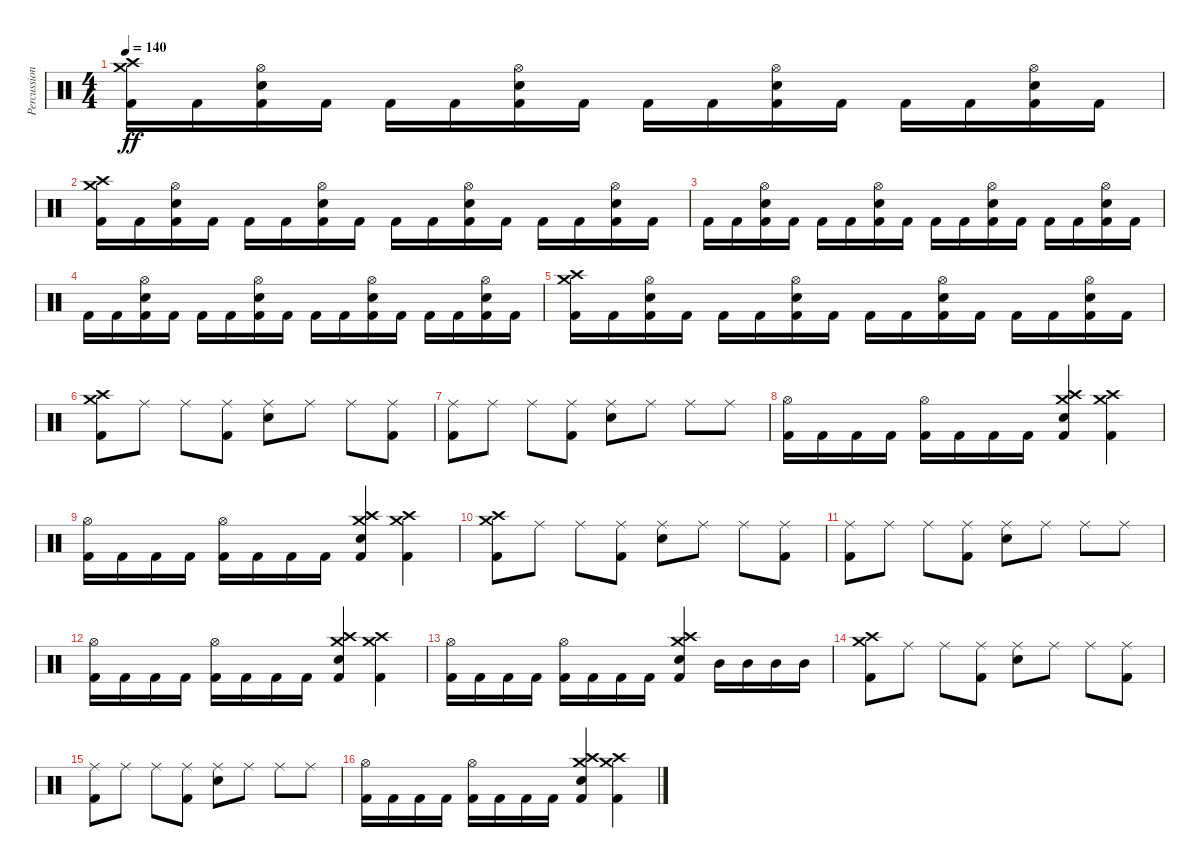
\track ("Percussion" "Percussion") {instrument percussion}
\staff {score}
\articulation defaults
\ts (4 4)
\tempo 140
\clef neutral
\ks c
("Kick (hit) 2" "Crash medium (hit)" "Crash high (hit)").16{dy ff} "Kick (hit) 2".16 ("Kick (hit) 2" "Electric Snare (hit)" "Hi-Hat (open)").16 "Kick (hit) 2".16 "Kick (hit) 2".16 "Kick (hit) 2".16 ("Kick (hit) 2" "Electric Snare (hit)" "Hi-Hat (open)").16 "Kick (hit) 2".16 "Kick (hit) 2".16 "Kick (hit) 2".16 ("Kick (hit) 2" "Electric Snare (hit)" "Hi-Hat (open)").16 "Kick (hit) 2".16 "Kick (hit) 2".16 "Kick (hit) 2".16 ("Kick (hit) 2" "Electric Snare (hit)" "Hi-Hat (open)").16 "Kick (hit) 2".16 |
("Kick (hit) 2" "Crash medium (hit)" "Crash high (hit)").16 "Kick (hit) 2".16 ("Kick (hit) 2" "Electric Snare (hit)" "Hi-Hat (open)").16 "Kick (hit) 2".16 "Kick (hit) 2".16 "Kick (hit) 2".16 ("Kick (hit) 2" "Electric Snare (hit)" "Hi-Hat (open)").16 "Kick (hit) 2".16 "Kick (hit) 2".16 "Kick (hit) 2".16 ("Kick (hit) 2" "Electric Snare (hit)" "Hi-Hat (open)").16 "Kick (hit) 2".16 "Kick (hit) 2".16 "Kick (hit) 2".16 ("Kick (hit) 2" "Electric Snare (hit)" "Hi-Hat (open)").16 "Kick (hit) 2".16 |
"Kick (hit) 2".16 "Kick (hit) 2".16 ("Kick (hit) 2" "Electric Snare (hit)" "Hi-Hat (open)").16 "Kick (hit) 2".16 "Kick (hit) 2".16 "Kick (hit) 2".16 ("Kick (hit) 2" "Electric Snare (hit)" "Hi-Hat (open)").16 "Kick (hit) 2".16 "Kick (hit) 2".16 "Kick (hit) 2".16 ("Kick (hit) 2" "Electric Snare (hit)" "Hi-Hat (open)").16 "Kick (hit) 2".16 "Kick (hit) 2".16 "Kick (hit) 2".16 ("Kick (hit) 2" "Electric Snare (hit)" "Hi-Hat (open)").16 "Kick (hit) 2".16 |
"Kick (hit) 2".16 "Kick (hit) 2".16 ("Kick (hit) 2" "Electric Snare (hit)" "Hi-Hat (open)").16 "Kick (hit) 2".16 "Kick (hit) 2".16 "Kick (hit) 2".16 ("Kick (hit) 2" "Electric Snare (hit)" "Hi-Hat (open)").16 "Kick (hit) 2".16 "Kick (hit) 2".16 "Kick (hit) 2".16 ("Kick (hit) 2" "Electric Snare (hit)" "Hi-Hat (open)").16 "Kick (hit) 2".16 "Kick (hit) 2".16 "Kick (hit) 2".16 ("Kick (hit) 2" "Electric Snare (hit)" "Hi-Hat (open)").16 "Kick (hit) 2".16 |
("Kick (hit) 2" "Crash medium (hit)" "Crash high (hit)").16 "Kick (hit) 2".16 ("Kick (hit) 2" "Electric Snare (hit)" "Hi-Hat (open)").16 "Kick (hit) 2".16 "Kick (hit) 2".16 "Kick (hit) 2".16 ("Kick (hit) 2" "Electric Snare (hit)" "Hi-Hat (open)").16 "Kick (hit) 2".16 "Kick (hit) 2".16 "Kick (hit) 2".16 ("Kick (hit) 2" "Electric Snare (hit)" "Hi-Hat (open)").16 "Kick (hit) 2".16 "Kick (hit) 2".16 "Kick (hit) 2".16 ("Kick (hit) 2" "Electric Snare (hit)" "Hi-Hat (open)").16 "Kick (hit) 2".16 |
("Kick (hit) 2" "Crash medium (hit)" "Crash high (hit)").8 "Ride (middle)".8 "Ride (middle)".8 ("Kick (hit) 2" "Ride (middle)").8 ("Electric Snare (hit)" "Ride (middle)").8 "Ride (middle)".8 "Ride (middle)".8 ("Kick (hit) 2" "Ride (middle)").8 |
("Kick (hit) 2" "Ride (middle)").8 "Ride (middle)".8 "Ride (middle)".8 ("Kick (hit) 2" "Ride (middle)").8 ("Electric Snare (hit)" "Ride (middle)").8 "Ride (middle)".8 "Ride (middle)".8 "Ride (middle)".8 |
("Kick (hit) 2" "Hi-Hat (open)").16 "Kick (hit) 2".16 "Kick (hit) 2".16 "Kick (hit) 2".16 ("Kick (hit) 2" "Hi-Hat (open)").16 "Kick (hit) 2".16 "Kick (hit) 2".16 "Kick (hit) 2".16 ("Kick (hit) 2" "Electric Snare (hit)" "Crash medium (hit)" "Crash high (hit)").4 ("Kick (hit) 2" "Crash medium (hit)" "Crash high (hit)").4 |
("Kick (hit) 2" "Hi-Hat (open)").16 "Kick (hit) 2".16 "Kick (hit) 2".16 "Kick (hit) 2".16 ("Kick (hit) 2" "Hi-Hat (open)").16 "Kick (hit) 2".16 "Kick (hit) 2".16 "Kick (hit) 2".16 ("Kick (hit) 2" "Electric Snare (hit)" "Crash medium (hit)" "Crash high (hit)").4 ("Kick (hit) 2" "Crash medium (hit)" "Crash high (hit)").4 |
("Kick (hit) 2" "Crash medium (hit)" "Crash high (hit)").8 "Ride (middle)".8 "Ride (middle)".8 ("Kick (hit) 2" "Ride (middle)").8 ("Electric Snare (hit)" "Ride (middle)").8 "Ride (middle)".8 "Ride (middle)".8 ("Kick (hit) 2" "Ride (middle)").8 |
("Kick (hit) 2" "Ride (middle)").8 "Ride (middle)".8 "Ride (middle)".8 ("Kick (hit) 2" "Ride (middle)").8 ("Electric Snare (hit)" "Ride (middle)").8 "Ride (middle)".8 "Ride (middle)".8 "Ride (middle)".8 |
("Kick (hit) 2" "Hi-Hat (open)").16 "Kick (hit) 2".16 "Kick (hit) 2".16 "Kick (hit) 2".16 ("Kick (hit) 2" "Hi-Hat (open)").16 "Kick (hit) 2".16 "Kick (hit) 2".16 "Kick (hit) 2".16 ("Kick (hit) 2" "Electric Snare (hit)" "Crash medium (hit)" "Crash high (hit)").4 ("Kick (hit) 2" "Crash medium (hit)" "Crash high (hit)").4 |
("Kick (hit) 2" "Hi-Hat (open)").16 "Kick (hit) 2".16 "Kick (hit) 2".16 "Kick (hit) 2".16 ("Kick (hit) 2" "Hi-Hat (open)").16 "Kick (hit) 2".16 "Kick (hit) 2".16 "Kick (hit) 2".16 ("Kick (hit) 2" "Electric Snare (hit)" "Crash medium (hit)" "Crash high (hit)").4 "Mid Tom (hit)".16 "Mid Tom (hit)".16 "Mid Tom (hit)".16 "Mid Tom (hit)".16 |
("Kick (hit) 2" "Crash medium (hit)" "Crash high (hit)").8 "Ride (middle)".8 "Ride (middle)".8 ("Kick (hit) 2" "Ride (middle)").8 ("Electric Snare (hit)" "Ride (middle)").8 "Ride (middle)".8 "Ride (middle)".8 ("Kick (hit) 2" "Ride (middle)").8 |
("Kick (hit) 2" "Ride (middle)").8 "Ride (middle)".8 "Ride (middle)".8 ("Kick (hit) 2" "Ride (middle)").8 ("Electric Snare (hit)" "Ride (middle)").8 "Ride (middle)".8 "Ride (middle)".8 "Ride (middle)".8 |
("Kick (hit) 2" "Hi-Hat (open)").16 "Kick (hit) 2".16 "Kick (hit) 2".16 "Kick (hit) 2".16 ("Kick (hit) 2" "Hi-Hat (open)").16 "Kick (hit) 2".16 "Kick (hit) 2".16 "Kick (hit) 2".16 ("Kick (hit) 2" "Electric Snare (hit)" "Crash medium (hit)" "Crash high (hit)").4 ("Kick (hit) 2" "Crash medium (hit)" "Crash high (hit)").4
